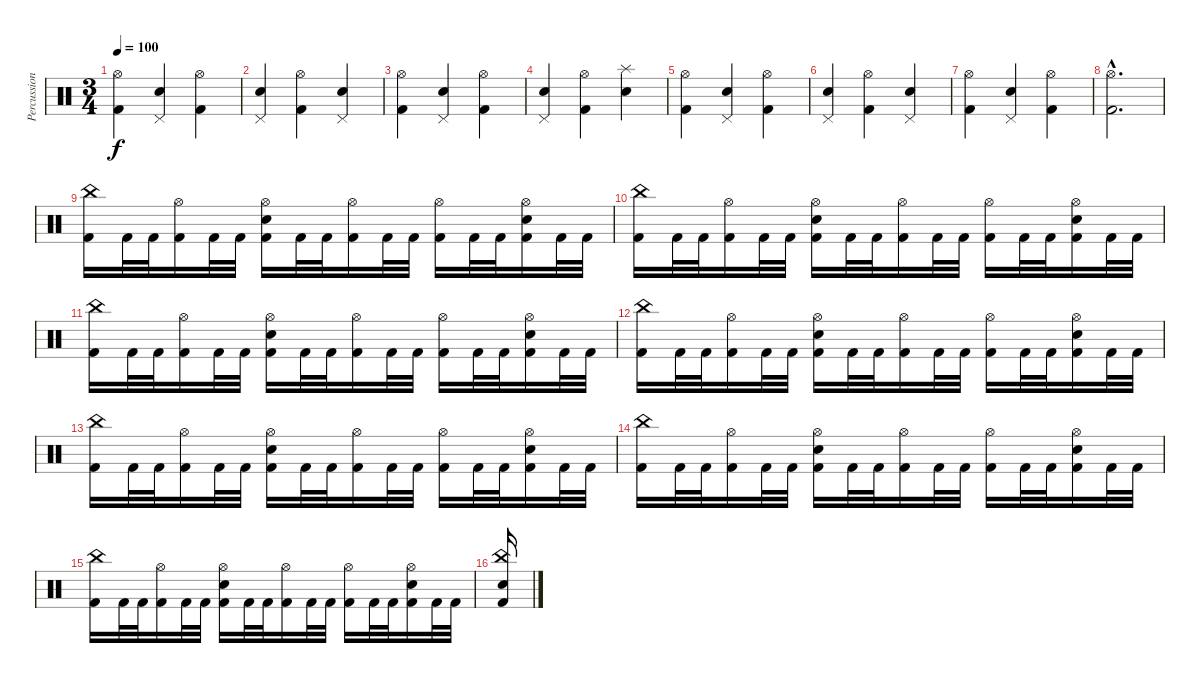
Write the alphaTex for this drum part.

\track ("Percussion" "Percussion") {instrument percussion}
\staff {score}
\articulation defaults
\ts (3 4)
\tempo 100
\clef neutral
\ks c
("Hi-Hat (open)" "Kick (hit) 2").4{dy f} ("Pedal Hi-Hat (hit)" "Electric Snare (hit)").4 ("Hi-Hat (open)" "Kick (hit) 2").4 |
("Pedal Hi-Hat (hit)" "Electric Snare (hit)").4 ("Hi-Hat (open)" "Kick (hit) 2").4 ("Pedal Hi-Hat (hit)" "Electric Snare (hit)").4 |
("Hi-Hat (open)" "Kick (hit) 2").4 ("Pedal Hi-Hat (hit)" "Electric Snare (hit)").4 ("Hi-Hat (open)" "Kick (hit) 2").4 |
("Pedal Hi-Hat (hit)" "Electric Snare (hit)").4 ("Hi-Hat (open)" "Kick (hit) 2").4 ("Splash (hit)" "Electric Snare (hit)").4 |
("Hi-Hat (open)" "Kick (hit) 2").4 ("Pedal Hi-Hat (hit)" "Electric Snare (hit)").4 ("Hi-Hat (open)" "Kick (hit) 2").4 |
("Pedal Hi-Hat (hit)" "Electric Snare (hit)").4 ("Hi-Hat (open)" "Kick (hit) 2").4 ("Pedal Hi-Hat (hit)" "Electric Snare (hit)").4 |
("Hi-Hat (open)" "Kick (hit) 2").4 ("Pedal Hi-Hat (hit)" "Electric Snare (hit)").4 ("Hi-Hat (open)" "Kick (hit) 2").4 |
("Hi-Hat (open)"{hac} "Kick (hit) 2"{hac}).2{d} |
("China (hit)" "Kick (hit) 2").16 "Kick (hit) 2".32 "Kick (hit) 2".32 ("Hi-Hat (open)" "Kick (hit) 2").16 "Kick (hit) 2".32 "Kick (hit) 2".32 ("Hi-Hat (open)" "Snare (hit) 2" "Kick (hit) 2").16 "Kick (hit) 2".32 "Kick (hit) 2".32 ("Hi-Hat (open)" "Kick (hit) 2").16 "Kick (hit) 2".32 "Kick (hit) 2".32 ("Hi-Hat (open)" "Kick (hit) 2").16 "Kick (hit) 2".32 "Kick (hit) 2".32 ("Hi-Hat (open)" "Snare (hit) 2" "Kick (hit) 2").16 "Kick (hit) 2".32 "Kick (hit) 2".32 |
("China (hit)" "Kick (hit) 2").16 "Kick (hit) 2".32 "Kick (hit) 2".32 ("Hi-Hat (open)" "Kick (hit) 2").16 "Kick (hit) 2".32 "Kick (hit) 2".32 ("Hi-Hat (open)" "Snare (hit) 2" "Kick (hit) 2").16 "Kick (hit) 2".32 "Kick (hit) 2".32 ("Hi-Hat (open)" "Kick (hit) 2").16 "Kick (hit) 2".32 "Kick (hit) 2".32 ("Hi-Hat (open)" "Kick (hit) 2").16 "Kick (hit) 2".32 "Kick (hit) 2".32 ("Hi-Hat (open)" "Snare (hit) 2" "Kick (hit) 2").16 "Kick (hit) 2".32 "Kick (hit) 2".32 |
("China (hit)" "Kick (hit) 2").16 "Kick (hit) 2".32 "Kick (hit) 2".32 ("Hi-Hat (open)" "Kick (hit) 2").16 "Kick (hit) 2".32 "Kick (hit) 2".32 ("Hi-Hat (open)" "Snare (hit) 2" "Kick (hit) 2").16 "Kick (hit) 2".32 "Kick (hit) 2".32 ("Hi-Hat (open)" "Kick (hit) 2").16 "Kick (hit) 2".32 "Kick (hit) 2".32 ("Hi-Hat (open)" "Kick (hit) 2").16 "Kick (hit) 2".32 "Kick (hit) 2".32 ("Hi-Hat (open)" "Snare (hit) 2" "Kick (hit) 2").16 "Kick (hit) 2".32 "Kick (hit) 2".32 |
("China (hit)" "Kick (hit) 2").16 "Kick (hit) 2".32 "Kick (hit) 2".32 ("Hi-Hat (open)" "Kick (hit) 2").16 "Kick (hit) 2".32 "Kick (hit) 2".32 ("Hi-Hat (open)" "Snare (hit) 2" "Kick (hit) 2").16 "Kick (hit) 2".32 "Kick (hit) 2".32 ("Hi-Hat (open)" "Kick (hit) 2").16 "Kick (hit) 2".32 "Kick (hit) 2".32 ("Hi-Hat (open)" "Kick (hit) 2").16 "Kick (hit) 2".32 "Kick (hit) 2".32 ("Hi-Hat (open)" "Snare (hit) 2" "Kick (hit) 2").16 "Kick (hit) 2".32 "Kick (hit) 2".32 |
("China (hit)" "Kick (hit) 2").16 "Kick (hit) 2".32 "Kick (hit) 2".32 ("Hi-Hat (open)" "Kick (hit) 2").16 "Kick (hit) 2".32 "Kick (hit) 2".32 ("Hi-Hat (open)" "Snare (hit) 2" "Kick (hit) 2").16 "Kick (hit) 2".32 "Kick (hit) 2".32 ("Hi-Hat (open)" "Kick (hit) 2").16 "Kick (hit) 2".32 "Kick (hit) 2".32 ("Hi-Hat (open)" "Kick (hit) 2").16 "Kick (hit) 2".32 "Kick (hit) 2".32 ("Hi-Hat (open)" "Snare (hit) 2" "Kick (hit) 2").16 "Kick (hit) 2".32 "Kick (hit) 2".32 |
("China (hit)" "Kick (hit) 2").16 "Kick (hit) 2".32 "Kick (hit) 2".32 ("Hi-Hat (open)" "Kick (hit) 2").16 "Kick (hit) 2".32 "Kick (hit) 2".32 ("Hi-Hat (open)" "Snare (hit) 2" "Kick (hit) 2").16 "Kick (hit) 2".32 "Kick (hit) 2".32 ("Hi-Hat (open)" "Kick (hit) 2").16 "Kick (hit) 2".32 "Kick (hit) 2".32 ("Hi-Hat (open)" "Kick (hit) 2").16 "Kick (hit) 2".32 "Kick (hit) 2".32 ("Hi-Hat (open)" "Snare (hit) 2" "Kick (hit) 2").16 "Kick (hit) 2".32 "Kick (hit) 2".32 |
("China (hit)" "Kick (hit) 2").16 "Kick (hit) 2".32 "Kick (hit) 2".32 ("Hi-Hat (open)" "Kick (hit) 2").16 "Kick (hit) 2".32 "Kick (hit) 2".32 ("Hi-Hat (open)" "Snare (hit) 2" "Kick (hit) 2").16 "Kick (hit) 2".32 "Kick (hit) 2".32 ("Hi-Hat (open)" "Kick (hit) 2").16 "Kick (hit) 2".32 "Kick (hit) 2".32 ("Hi-Hat (open)" "Kick (hit) 2").16 "Kick (hit) 2".32 "Kick (hit) 2".32 ("Hi-Hat (open)" "Snare (hit) 2" "Kick (hit) 2").16 "Kick (hit) 2".32 "Kick (hit) 2".32 |
("China (hit)" "Snare (hit) 2" "Kick (hit) 2").16
